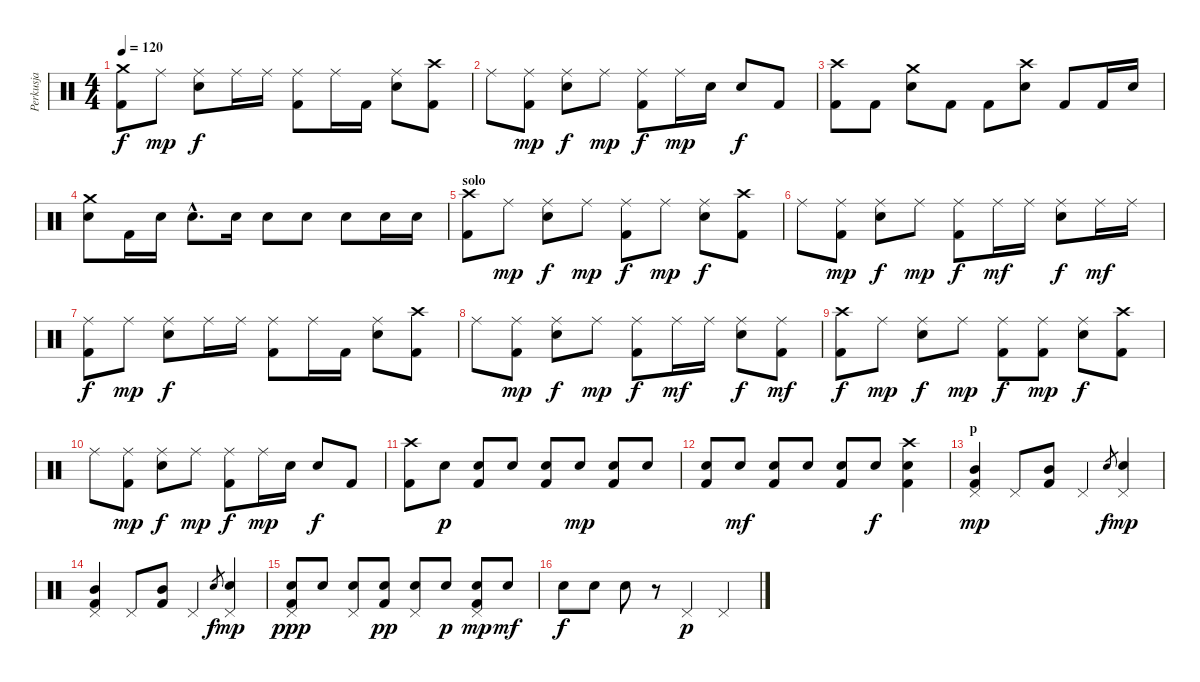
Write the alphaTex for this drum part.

\track ("Perkusja" "Perkusja") {instrument percussion}
\staff {score}
\articulation defaults
\ts (4 4)
\tempo 120
\clef neutral
\ks c
("Crash medium (hit)" "Kick (hit) 2").8{dy f} "Ride (middle)".8{dy mp} ("Ride (middle)" "Snare (hit) 2").8{dy f} "Ride (middle)".16 "Ride (middle)".16 ("Ride (middle)" "Kick (hit) 2").8 "Ride (middle)".16 "Kick (hit) 2".16 ("Ride (middle)" "Snare (hit) 2").8 ("Crash high (hit)" "Kick (hit) 2").8 |
"Ride (middle)".8 ("Ride (middle)" "Kick (hit) 2").8{dy mp} ("Ride (middle)" "Snare (hit) 2").8{dy f} "Ride (middle)".8{dy mp} ("Ride (middle)" "Kick (hit) 2").8{dy f} "Ride (middle)".16{dy mp} "Snare (hit) 2".16 "Snare (hit) 2".8{dy f} "Kick (hit) 2".8 |
("Crash high (hit)" "Kick (hit) 2").8 "Kick (hit) 2".8 ("Crash medium (hit)" "Snare (hit) 2").8 "Kick (hit) 2".8 "Kick (hit) 2".8 ("Crash high (hit)" "Snare (hit) 2").8 "Kick (hit) 2".8 "Kick (hit) 2".16 "Snare (hit) 2".16 |
("Crash medium (hit)" "Snare (hit) 2").8 "Kick (hit) 2".16 "Snare (hit) 2".16 "Snare (hit) 2"{hac}.8{d} "Snare (hit) 2".16 "Snare (hit) 2".8 "Snare (hit) 2".8 "Snare (hit) 2".8 "Snare (hit) 2".16 "Snare (hit) 2".16 |
\section ("" "solo")
("Crash high (hit)" "Kick (hit) 2").8 "Ride (middle)".8{dy mp} ("Ride (middle)" "Snare (hit) 2").8{dy f} "Ride (middle)".8{dy mp} ("Ride (middle)" "Kick (hit) 2").8{dy f} "Ride (middle)".8{dy mp} ("Ride (middle)" "Snare (hit) 2").8{dy f} ("Crash high (hit)" "Kick (hit) 2").8 |
"Ride (middle)".8 ("Ride (middle)" "Kick (hit) 2").8{dy mp} ("Ride (middle)" "Snare (hit) 2").8{dy f} "Ride (middle)".8{dy mp} ("Ride (middle)" "Kick (hit) 2").8{dy f} "Ride (middle)".16{dy mf} "Ride (middle)".16 ("Ride (middle)" "Snare (hit) 2").8{dy f} "Ride (middle)".16{dy mf} "Ride (middle)".16 |
("Ride (middle)" "Kick (hit) 2").8{dy f} "Ride (middle)".8{dy mp} ("Ride (middle)" "Snare (hit) 2").8{dy f} "Ride (middle)".16 "Ride (middle)".16 ("Ride (middle)" "Kick (hit) 2").8 "Ride (middle)".16 "Kick (hit) 2".16 ("Ride (middle)" "Snare (hit) 2").8 ("Crash high (hit)" "Kick (hit) 2").8 |
"Ride (middle)".8 ("Ride (middle)" "Kick (hit) 2").8{dy mp} ("Ride (middle)" "Snare (hit) 2").8{dy f} "Ride (middle)".8{dy mp} ("Ride (middle)" "Kick (hit) 2").8{dy f} "Ride (middle)".16{dy mf} "Ride (middle)".16 ("Ride (middle)" "Snare (hit) 2").8{dy f} ("Ride (middle)" "Kick (hit) 2").8{dy mf} |
("Crash high (hit)" "Kick (hit) 2").8{dy f} "Ride (middle)".8{dy mp} ("Ride (middle)" "Snare (hit) 2").8{dy f} "Ride (middle)".8{dy mp} ("Ride (middle)" "Kick (hit) 2").8{dy f} ("Ride (middle)" "Kick (hit) 2").8{dy mp} ("Ride (middle)" "Snare (hit) 2").8{dy f} ("Crash high (hit)" "Kick (hit) 2").8 |
"Ride (middle)".8 ("Ride (middle)" "Kick (hit) 2").8{dy mp} ("Ride (middle)" "Snare (hit) 2").8{dy f} "Ride (middle)".8{dy mp} ("Ride (middle)" "Kick (hit) 2").8{dy f} "Ride (middle)".16{dy mp} "Snare (hit) 2".16 "Snare (hit) 2".8{dy f} "Kick (hit) 2".8 |
("Crash high (hit)" "Kick (hit) 2").8 "Snare (hit) 2".8{dy p} ("Snare (hit) 2" "Kick (hit) 2").8 "Snare (hit) 2".8 ("Snare (hit) 2" "Kick (hit) 2").8 "Snare (hit) 2".8{dy mp} ("Snare (hit) 2" "Kick (hit) 2").8 "Snare (hit) 2".8 |
("Snare (hit) 2" "Kick (hit) 2").8 "Snare (hit) 2".8{dy mf} ("Snare (hit) 2" "Kick (hit) 2").8 "Snare (hit) 2".8 ("Snare (hit) 2" "Kick (hit) 2").8 "Snare (hit) 2".8{dy f} ("Crash high (hit)" "Snare (hit) 2" "Kick (hit) 2").4 |
\section ("" "p")
("Pedal Hi-Hat (hit)" "Mid Tom (hit)" "Kick (hit) 2").4{dy mp} "Pedal Hi-Hat (hit)".8 ("Mid Tom (hit)" "Kick (hit) 2").8 "Pedal Hi-Hat (hit)".4 "Snare (hit) 2".8{gr dy f} ("Pedal Hi-Hat (hit)" "Snare (hit) 2").4{dy mp} |
("Pedal Hi-Hat (hit)" "Mid Tom (hit)" "Kick (hit) 2").4 "Pedal Hi-Hat (hit)".8 ("Mid Tom (hit)" "Kick (hit) 2").8 "Pedal Hi-Hat (hit)".4 "Snare (hit) 2".8{gr dy f} ("Pedal Hi-Hat (hit)" "Snare (hit) 2").4{dy mp} |
("Pedal Hi-Hat (hit)" "Snare (hit) 2" "Kick (hit) 2").8{dy ppp} "Snare (hit) 2".8 ("Pedal Hi-Hat (hit)" "Snare (hit) 2").8 ("Snare (hit) 2" "Kick (hit) 2").8{dy pp} ("Pedal Hi-Hat (hit)" "Snare (hit) 2").8 "Snare (hit) 2".8{dy p} ("Pedal Hi-Hat (hit)" "Snare (hit) 2" "Kick (hit) 2").8{dy mp} "Snare (hit) 2".8{dy mf} |
"Snare (hit) 2".8{dy f} "Snare (hit) 2".8 "Snare (hit) 2".8 r.8 "Pedal Hi-Hat (hit)".4{dy p} "Pedal Hi-Hat (hit)".4
